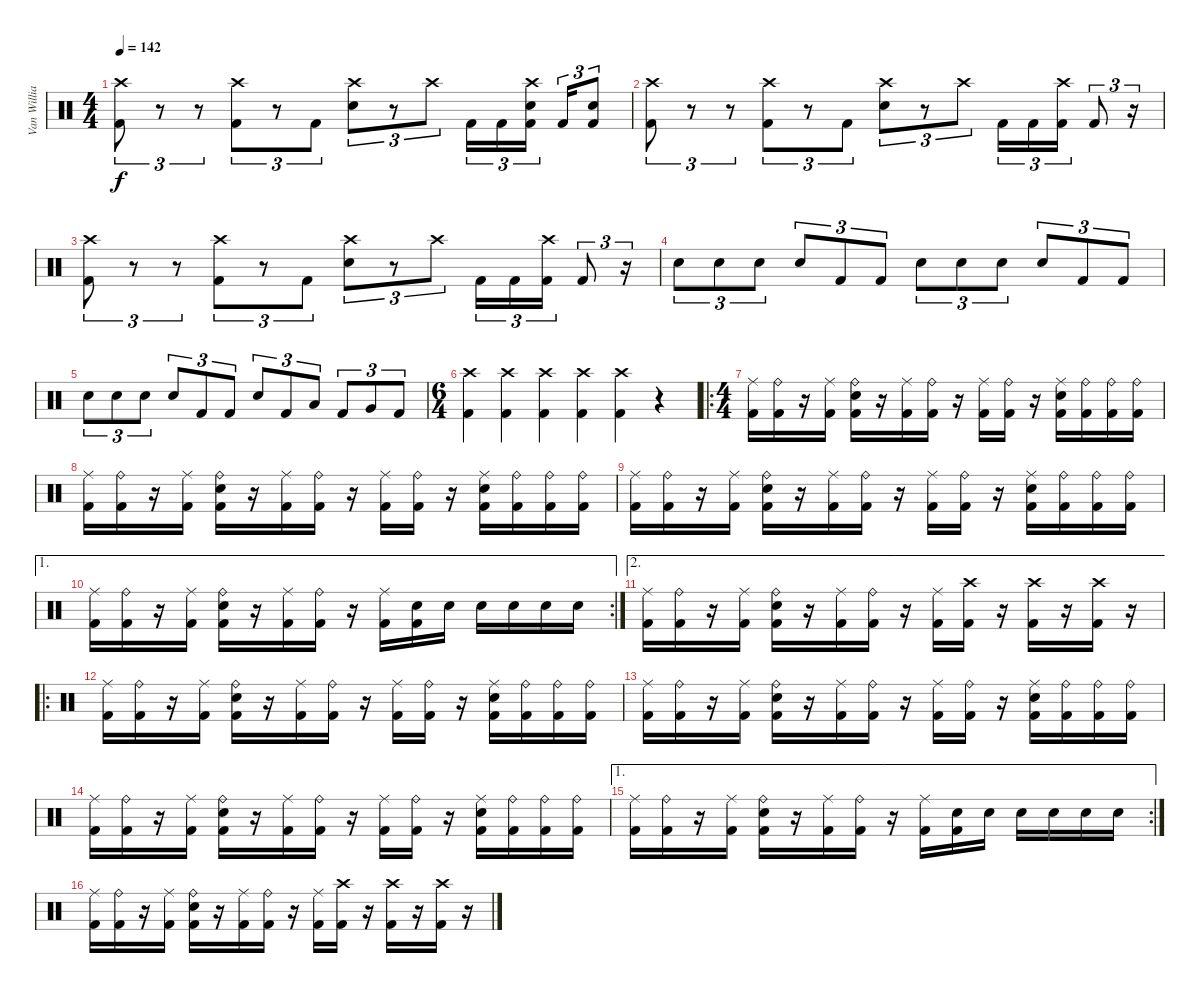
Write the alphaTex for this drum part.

\track ("Van Williams" "Van Willia") {instrument percussion}
\staff {score}
\articulation defaults
\ts (4 4)
\tempo 142
\clef neutral
\ks c
("Crash high (hit)" "Kick (hit) 2").8{tu (3 2) dy f} r.8{tu (3 2)} r.8{tu (3 2)} ("Crash high (hit)" "Kick (hit) 2").8{tu (3 2)} r.8{tu (3 2)} "Kick (hit) 2".8{tu (3 2)} ("Crash high (hit)" "Electric Snare (hit)").8{tu (3 2)} r.8{tu (3 2)} "Crash high (hit)".8{tu (3 2)} "Kick (hit) 2".16{tu (3 2)} "Kick (hit) 2".16{tu (3 2)} ("Crash high (hit)" "Kick (hit) 2" "Electric Snare (hit)").16{tu (3 2)} "Kick (hit) 2".16{tu (3 2)} ("Kick (hit) 2" "Electric Snare (hit)").8{tu (3 2)} |
("Crash high (hit)" "Kick (hit) 2").8{tu (3 2)} r.8{tu (3 2)} r.8{tu (3 2)} ("Crash high (hit)" "Kick (hit) 2").8{tu (3 2)} r.8{tu (3 2)} "Kick (hit) 2".8{tu (3 2)} ("Crash high (hit)" "Electric Snare (hit)").8{tu (3 2)} r.8{tu (3 2)} "Crash high (hit)".8{tu (3 2)} "Kick (hit) 2".16{tu (3 2)} "Kick (hit) 2".16{tu (3 2)} ("Crash high (hit)" "Kick (hit) 2").16{tu (3 2)} "Kick (hit) 2".8{tu (3 2)} r.16{tu (3 2)} |
("Crash high (hit)" "Kick (hit) 2").8{tu (3 2)} r.8{tu (3 2)} r.8{tu (3 2)} ("Crash high (hit)" "Kick (hit) 2").8{tu (3 2)} r.8{tu (3 2)} "Kick (hit) 2".8{tu (3 2)} ("Crash high (hit)" "Electric Snare (hit)").8{tu (3 2)} r.8{tu (3 2)} "Crash high (hit)".8{tu (3 2)} "Kick (hit) 2".16{tu (3 2)} "Kick (hit) 2".16{tu (3 2)} ("Crash high (hit)" "Kick (hit) 2").16{tu (3 2)} "Kick (hit) 2".8{tu (3 2)} r.16{tu (3 2)} |
"Electric Snare (hit)".8{tu (3 2)} "Electric Snare (hit)".8{tu (3 2)} "Electric Snare (hit)".8{tu (3 2)} "Electric Snare (hit)".8{tu (3 2)} "Kick (hit) 2".8{tu (3 2)} "Kick (hit) 2".8{tu (3 2)} "Electric Snare (hit)".8{tu (3 2)} "Electric Snare (hit)".8{tu (3 2)} "Electric Snare (hit)".8{tu (3 2)} "Electric Snare (hit)".8{tu (3 2)} "Kick (hit) 2".8{tu (3 2)} "Kick (hit) 2".8{tu (3 2)} |
"Electric Snare (hit)".8{tu (3 2)} "Electric Snare (hit)".8{tu (3 2)} "Electric Snare (hit)".8{tu (3 2)} "Electric Snare (hit)".8{tu (3 2)} "Kick (hit) 2".8{tu (3 2)} "Kick (hit) 2".8{tu (3 2)} "Electric Snare (hit)".8{tu (3 2)} "Kick (hit) 2".8{tu (3 2)} "Low Tom (hit)".8{tu (3 2)} "Kick (hit) 2".8{tu (3 2)} "Very Low Tom (hit)".8{tu (3 2)} "Kick (hit) 2".8{tu (3 2)} |
\ts (6 4)
("Crash high (hit)" "Kick (hit) 2").4 ("Crash high (hit)" "Kick (hit) 2").4 ("Crash high (hit)" "Kick (hit) 2").4 ("Crash high (hit)" "Kick (hit) 2").4 ("Crash high (hit)" "Kick (hit) 2").4 r.4 |
\ro
\ts (4 4)
("Ride (middle)" "Kick (hit) 2").16 ("Ride (bell)" "Kick (hit) 2").16 r.16 ("Ride (middle)" "Kick (hit) 2").16 ("Ride (bell)" "Kick (hit) 2" "Electric Snare (hit)").16 r.16 ("Ride (middle)" "Kick (hit) 2").16 ("Ride (bell)" "Kick (hit) 2").16 r.16 ("Ride (middle)" "Kick (hit) 2").16 ("Ride (bell)" "Kick (hit) 2").16 r.16 ("Ride (middle)" "Kick (hit) 2" "Electric Snare (hit)").16 ("Ride (bell)" "Kick (hit) 2").16 ("Ride (bell)" "Kick (hit) 2").16 ("Ride (bell)" "Kick (hit) 2").16 |
("Ride (middle)" "Kick (hit) 2").16 ("Ride (bell)" "Kick (hit) 2").16 r.16 ("Ride (middle)" "Kick (hit) 2").16 ("Ride (bell)" "Kick (hit) 2" "Electric Snare (hit)").16 r.16 ("Ride (middle)" "Kick (hit) 2").16 ("Ride (bell)" "Kick (hit) 2").16 r.16 ("Ride (middle)" "Kick (hit) 2").16 ("Ride (bell)" "Kick (hit) 2").16 r.16 ("Ride (middle)" "Kick (hit) 2" "Electric Snare (hit)").16 ("Ride (bell)" "Kick (hit) 2").16 ("Ride (bell)" "Kick (hit) 2").16 ("Ride (bell)" "Kick (hit) 2").16 |
("Ride (middle)" "Kick (hit) 2").16 ("Ride (bell)" "Kick (hit) 2").16 r.16 ("Ride (middle)" "Kick (hit) 2").16 ("Ride (bell)" "Kick (hit) 2" "Electric Snare (hit)").16 r.16 ("Ride (middle)" "Kick (hit) 2").16 ("Ride (bell)" "Kick (hit) 2").16 r.16 ("Ride (middle)" "Kick (hit) 2").16 ("Ride (bell)" "Kick (hit) 2").16 r.16 ("Ride (middle)" "Kick (hit) 2" "Electric Snare (hit)").16 ("Ride (bell)" "Kick (hit) 2").16 ("Ride (bell)" "Kick (hit) 2").16 ("Ride (bell)" "Kick (hit) 2").16 |
\ae 1
\rc 2
("Ride (middle)" "Kick (hit) 2").16 ("Ride (bell)" "Kick (hit) 2").16 r.16 ("Ride (middle)" "Kick (hit) 2").16 ("Ride (bell)" "Kick (hit) 2" "Electric Snare (hit)").16 r.16 ("Ride (middle)" "Kick (hit) 2").16 ("Ride (bell)" "Kick (hit) 2").16 r.16 ("Ride (middle)" "Kick (hit) 2").16 ("Kick (hit) 2" "Electric Snare (hit)").16 "Electric Snare (hit)".16 "Electric Snare (hit)".16 "Electric Snare (hit)".16 "Electric Snare (hit)".16 "Electric Snare (hit)".16 |
\ae 2
("Ride (middle)" "Kick (hit) 2").16 ("Ride (bell)" "Kick (hit) 2").16 r.16 ("Ride (middle)" "Kick (hit) 2").16 ("Ride (bell)" "Kick (hit) 2" "Electric Snare (hit)").16 r.16 ("Ride (middle)" "Kick (hit) 2").16 ("Ride (bell)" "Kick (hit) 2").16 r.16 ("Ride (middle)" "Kick (hit) 2").16 ("Crash high (hit)" "Kick (hit) 2").16 r.16 ("Crash high (hit)" "Kick (hit) 2").16 r.16 ("Crash high (hit)" "Kick (hit) 2").16 r.16 |
\ro
("Ride (middle)" "Kick (hit) 2").16 ("Ride (bell)" "Kick (hit) 2").16 r.16 ("Ride (middle)" "Kick (hit) 2").16 ("Ride (bell)" "Kick (hit) 2" "Electric Snare (hit)").16 r.16 ("Ride (middle)" "Kick (hit) 2").16 ("Ride (bell)" "Kick (hit) 2").16 r.16 ("Ride (middle)" "Kick (hit) 2").16 ("Ride (bell)" "Kick (hit) 2").16 r.16 ("Ride (middle)" "Kick (hit) 2" "Electric Snare (hit)").16 ("Ride (bell)" "Kick (hit) 2").16 ("Ride (bell)" "Kick (hit) 2").16 ("Ride (bell)" "Kick (hit) 2").16 |
("Ride (middle)" "Kick (hit) 2").16 ("Ride (bell)" "Kick (hit) 2").16 r.16 ("Ride (middle)" "Kick (hit) 2").16 ("Ride (bell)" "Kick (hit) 2" "Electric Snare (hit)").16 r.16 ("Ride (middle)" "Kick (hit) 2").16 ("Ride (bell)" "Kick (hit) 2").16 r.16 ("Ride (middle)" "Kick (hit) 2").16 ("Ride (bell)" "Kick (hit) 2").16 r.16 ("Ride (middle)" "Kick (hit) 2" "Electric Snare (hit)").16 ("Ride (bell)" "Kick (hit) 2").16 ("Ride (bell)" "Kick (hit) 2").16 ("Ride (bell)" "Kick (hit) 2").16 |
("Ride (middle)" "Kick (hit) 2").16 ("Ride (bell)" "Kick (hit) 2").16 r.16 ("Ride (middle)" "Kick (hit) 2").16 ("Ride (bell)" "Kick (hit) 2" "Electric Snare (hit)").16 r.16 ("Ride (middle)" "Kick (hit) 2").16 ("Ride (bell)" "Kick (hit) 2").16 r.16 ("Ride (middle)" "Kick (hit) 2").16 ("Ride (bell)" "Kick (hit) 2").16 r.16 ("Ride (middle)" "Kick (hit) 2" "Electric Snare (hit)").16 ("Ride (bell)" "Kick (hit) 2").16 ("Ride (bell)" "Kick (hit) 2").16 ("Ride (bell)" "Kick (hit) 2").16 |
\ae 1
\rc 2
("Ride (middle)" "Kick (hit) 2").16 ("Ride (bell)" "Kick (hit) 2").16 r.16 ("Ride (middle)" "Kick (hit) 2").16 ("Ride (bell)" "Kick (hit) 2" "Electric Snare (hit)").16 r.16 ("Ride (middle)" "Kick (hit) 2").16 ("Ride (bell)" "Kick (hit) 2").16 r.16 ("Ride (middle)" "Kick (hit) 2").16 ("Kick (hit) 2" "Electric Snare (hit)").16 "Electric Snare (hit)".16 "Electric Snare (hit)".16 "Electric Snare (hit)".16 "Electric Snare (hit)".16 "Electric Snare (hit)".16 |
("Ride (middle)" "Kick (hit) 2").16 ("Ride (bell)" "Kick (hit) 2").16 r.16 ("Ride (middle)" "Kick (hit) 2").16 ("Ride (bell)" "Kick (hit) 2" "Electric Snare (hit)").16 r.16 ("Ride (middle)" "Kick (hit) 2").16 ("Ride (bell)" "Kick (hit) 2").16 r.16 ("Ride (middle)" "Kick (hit) 2").16 ("Crash high (hit)" "Kick (hit) 2").16 r.16 ("Crash high (hit)" "Kick (hit) 2").16 r.16 ("Crash high (hit)" "Kick (hit) 2").16 r.16
